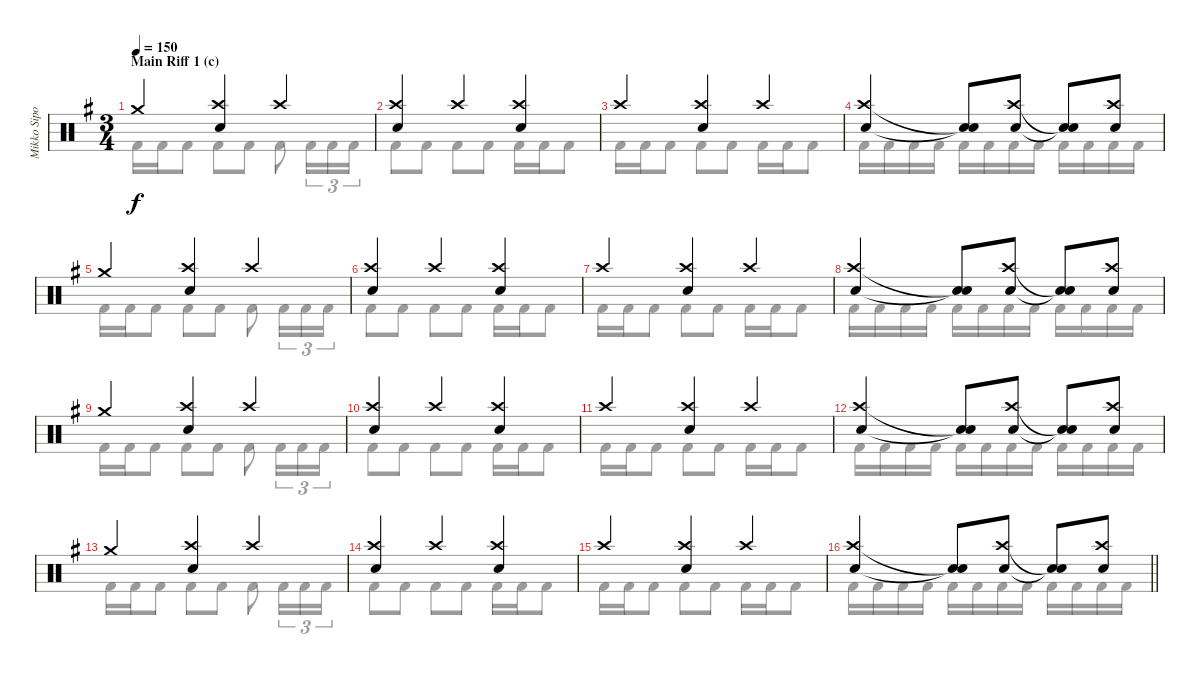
\track ("Mikko Sipola (drums)" "Mikko Sipo") {instrument percussion}
\staff {score}
\articulation defaults
\voice
\ts (3 4)
\section ("" "Main Riff 1 (c)")
\tempo 150
\clef neutral
\ks eminor "Crash medium (hit)".4{dy f}
("Crash high (hit)" "Electric Snare (hit)").4 "Crash high (hit)".4 |
("Crash high (hit)" "Electric Snare (hit)").4 "Crash high (hit)".4 ("Crash high (hit)" "Electric Snare (hit)").4 |
"Crash high (hit)".4 ("Crash high (hit)" "Electric Snare (hit)").4 "Crash high (hit)".4 |
("Crash high (hit)" "Electric Snare (hit)").4 ("Snare (hit)"{t} "Snare (hit)"{t}).8 ("Crash high (hit)" "Electric Snare (hit)").8 ("Snare (hit)"{t} "Snare (hit)"{t}).8 ("Crash high (hit)" "Electric Snare (hit)").8 |
"Crash medium (hit)".4 ("Crash high (hit)" "Electric Snare (hit)").4 "Crash high (hit)".4 |
("Crash high (hit)" "Electric Snare (hit)").4 "Crash high (hit)".4 ("Crash high (hit)" "Electric Snare (hit)").4 |
"Crash high (hit)".4 ("Crash high (hit)" "Electric Snare (hit)").4 "Crash high (hit)".4 |
("Crash high (hit)" "Electric Snare (hit)").4 ("Snare (hit)"{t} "Snare (hit)"{t}).8 ("Crash high (hit)" "Electric Snare (hit)").8 ("Snare (hit)"{t} "Snare (hit)"{t}).8 ("Crash high (hit)" "Electric Snare (hit)").8 |
"Crash medium (hit)".4 ("Crash high (hit)" "Electric Snare (hit)").4 "Crash high (hit)".4 |
("Crash high (hit)" "Electric Snare (hit)").4 "Crash high (hit)".4 ("Crash high (hit)" "Electric Snare (hit)").4 |
"Crash high (hit)".4 ("Crash high (hit)" "Electric Snare (hit)").4 "Crash high (hit)".4 |
("Crash high (hit)" "Electric Snare (hit)").4 ("Snare (hit)"{t} "Snare (hit)"{t}).8 ("Crash high (hit)" "Electric Snare (hit)").8 ("Snare (hit)"{t} "Snare (hit)"{t}).8 ("Crash high (hit)" "Electric Snare (hit)").8 |
"Crash medium (hit)".4 ("Crash high (hit)" "Electric Snare (hit)").4 "Crash high (hit)".4 |
("Crash high (hit)" "Electric Snare (hit)").4 "Crash high (hit)".4 ("Crash high (hit)" "Electric Snare (hit)").4 |
"Crash high (hit)".4 ("Crash high (hit)" "Electric Snare (hit)").4 "Crash high (hit)".4 |
\barLineRight lightlight
("Crash high (hit)" "Electric Snare (hit)").4 ("Snare (hit)"{t} "Snare (hit)"{t}).8 ("Crash high (hit)" "Electric Snare (hit)").8 ("Snare (hit)"{t} "Snare (hit)"{t}).8 ("Crash high (hit)" "Electric Snare (hit)").8
\voice
\clef neutral
\ottava regular
\simile none
\ks eminor "Kick (hit) 2".16{dy f} "Kick (hit) 2".16 "Kick (hit) 2".8 "Kick (hit) 2".8 "Kick (hit) 2".8 "Kick (hit) 2".8 "Kick (hit) 2".16{tu (3 2)} "Kick (hit) 2".16{tu (3 2)} "Kick (hit) 2".16{tu (3 2)}
|
"Kick (hit) 2".8 "Kick (hit) 2".8 "Kick (hit) 2".8 "Kick (hit) 2".8 "Kick (hit) 2".16 "Kick (hit) 2".16 "Kick (hit) 2".8 |
"Kick (hit) 2".16 "Kick (hit) 2".16 "Kick (hit) 2".8 "Kick (hit) 2".8 "Kick (hit) 2".8 "Kick (hit) 2".16 "Kick (hit) 2".16 "Kick (hit) 2".8 |
"Kick (hit) 2".16 "Kick (hit) 2".16 "Kick (hit) 2".16 "Kick (hit) 2".16 "Kick (hit) 2".16 "Kick (hit) 2".16 "Kick (hit) 2".16 "Kick (hit) 2".16 "Kick (hit) 2".16 "Kick (hit) 2".16 "Kick (hit) 2".16 "Kick (hit) 2".16 |
"Kick (hit) 2".16 "Kick (hit) 2".16 "Kick (hit) 2".8 "Kick (hit) 2".8 "Kick (hit) 2".8 "Kick (hit) 2".8 "Kick (hit) 2".16{tu (3 2)} "Kick (hit) 2".16{tu (3 2)} "Kick (hit) 2".16{tu (3 2)} |
"Kick (hit) 2".8 "Kick (hit) 2".8 "Kick (hit) 2".8 "Kick (hit) 2".8 "Kick (hit) 2".16 "Kick (hit) 2".16 "Kick (hit) 2".8 |
"Kick (hit) 2".16 "Kick (hit) 2".16 "Kick (hit) 2".8 "Kick (hit) 2".8 "Kick (hit) 2".8 "Kick (hit) 2".16 "Kick (hit) 2".16 "Kick (hit) 2".8 |
"Kick (hit) 2".16 "Kick (hit) 2".16 "Kick (hit) 2".16 "Kick (hit) 2".16 "Kick (hit) 2".16 "Kick (hit) 2".16 "Kick (hit) 2".16 "Kick (hit) 2".16 "Kick (hit) 2".16 "Kick (hit) 2".16 "Kick (hit) 2".16 "Kick (hit) 2".16 |
"Kick (hit) 2".16 "Kick (hit) 2".16 "Kick (hit) 2".8 "Kick (hit) 2".8 "Kick (hit) 2".8 "Kick (hit) 2".8 "Kick (hit) 2".16{tu (3 2)} "Kick (hit) 2".16{tu (3 2)} "Kick (hit) 2".16{tu (3 2)} |
"Kick (hit) 2".8 "Kick (hit) 2".8 "Kick (hit) 2".8 "Kick (hit) 2".8 "Kick (hit) 2".16 "Kick (hit) 2".16 "Kick (hit) 2".8 |
"Kick (hit) 2".16 "Kick (hit) 2".16 "Kick (hit) 2".8 "Kick (hit) 2".8 "Kick (hit) 2".8 "Kick (hit) 2".16 "Kick (hit) 2".16 "Kick (hit) 2".8 |
"Kick (hit) 2".16 "Kick (hit) 2".16 "Kick (hit) 2".16 "Kick (hit) 2".16 "Kick (hit) 2".16 "Kick (hit) 2".16 "Kick (hit) 2".16 "Kick (hit) 2".16 "Kick (hit) 2".16 "Kick (hit) 2".16 "Kick (hit) 2".16 "Kick (hit) 2".16 |
"Kick (hit) 2".16 "Kick (hit) 2".16 "Kick (hit) 2".8 "Kick (hit) 2".8 "Kick (hit) 2".8 "Kick (hit) 2".8 "Kick (hit) 2".16{tu (3 2)} "Kick (hit) 2".16{tu (3 2)} "Kick (hit) 2".16{tu (3 2)} |
"Kick (hit) 2".8 "Kick (hit) 2".8 "Kick (hit) 2".8 "Kick (hit) 2".8 "Kick (hit) 2".16 "Kick (hit) 2".16 "Kick (hit) 2".8 |
"Kick (hit) 2".16 "Kick (hit) 2".16 "Kick (hit) 2".8 "Kick (hit) 2".8 "Kick (hit) 2".8 "Kick (hit) 2".16 "Kick (hit) 2".16 "Kick (hit) 2".8 |
\barLineRight lightlight "Kick (hit) 2".16 "Kick (hit) 2".16 "Kick (hit) 2".16 "Kick (hit) 2".16 "Kick (hit) 2".16 "Kick (hit) 2".16 "Kick (hit) 2".16 "Kick (hit) 2".16 "Kick (hit) 2".16 "Kick (hit) 2".16 "Kick (hit) 2".16 "Kick (hit) 2".16
